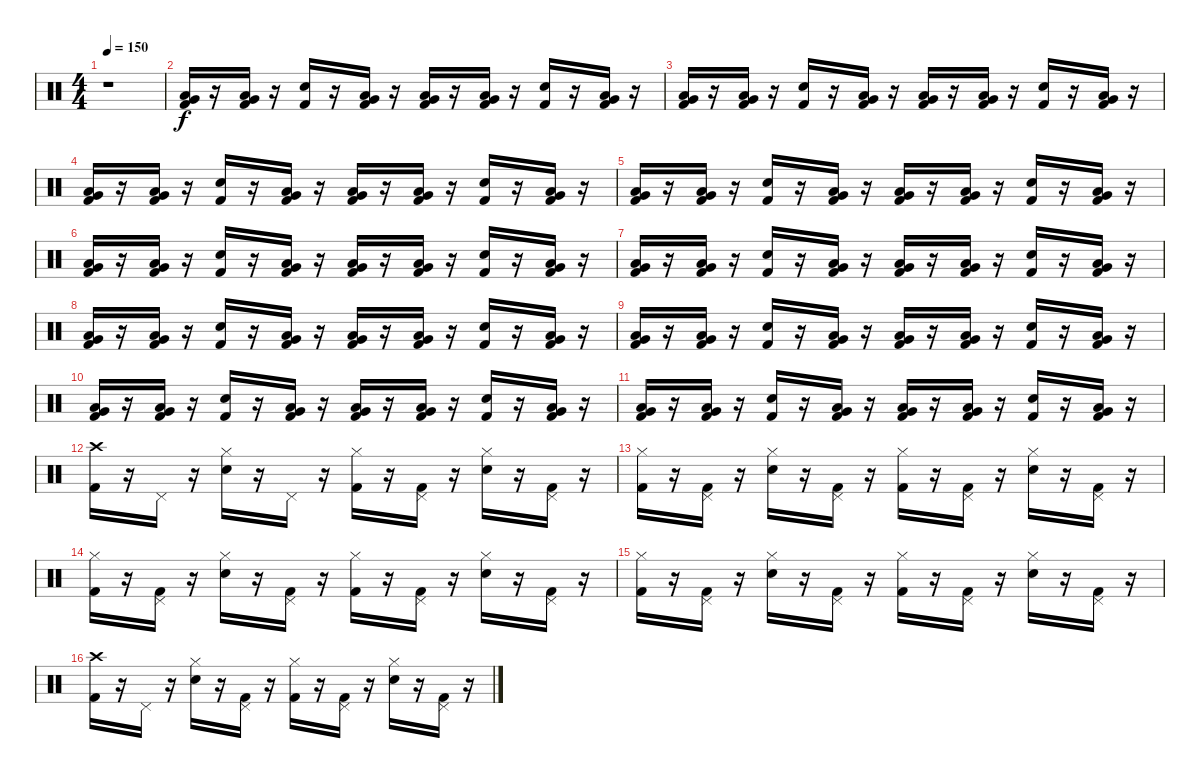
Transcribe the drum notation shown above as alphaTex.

\track "" {instrument percussion}
\staff {score}
\articulation defaults
\ts (4 4)
\tempo 150
\clef neutral
\ks c
r.1{dy f} |
("Kick (hit) 2" "Very Low Tom (hit)" "Low Tom (hit)").16 r.16 ("Kick (hit) 2" "Very Low Tom (hit)" "Low Tom (hit)").16 r.16 ("Kick (hit) 2" "Electric Snare (hit)").16 r.16 ("Kick (hit) 2" "Low Tom (hit)" "Very Low Tom (hit)").16 r.16 ("Kick (hit) 2" "Very Low Tom (hit)" "Low Tom (hit)").16 r.16 ("Kick (hit) 2" "Very Low Tom (hit)" "Low Tom (hit)").16 r.16 ("Kick (hit) 2" "Electric Snare (hit)").16 r.16 ("Kick (hit) 2" "Very Low Tom (hit)" "Low Tom (hit)").16 r.16 |
("Kick (hit) 2" "Very Low Tom (hit)" "Low Tom (hit)").16 r.16 ("Kick (hit) 2" "Low Tom (hit)" "Very Low Tom (hit)").16 r.16 ("Kick (hit) 2" "Electric Snare (hit)").16 r.16 ("Kick (hit) 2" "Very Low Tom (hit)" "Low Tom (hit)").16 r.16 ("Kick (hit) 2" "Low Tom (hit)" "Very Low Tom (hit)").16 r.16 ("Kick (hit) 2" "Low Tom (hit)" "Very Low Tom (hit)").16 r.16 ("Kick (hit) 2" "Electric Snare (hit)").16 r.16 ("Kick (hit) 2" "Low Tom (hit)" "Very Low Tom (hit)").16 r.16 |
("Kick (hit) 2" "Very Low Tom (hit)" "Low Tom (hit)").16 r.16 ("Kick (hit) 2" "Very Low Tom (hit)" "Low Tom (hit)").16 r.16 ("Kick (hit) 2" "Electric Snare (hit)").16 r.16 ("Kick (hit) 2" "Low Tom (hit)" "Very Low Tom (hit)").16 r.16 ("Kick (hit) 2" "Very Low Tom (hit)" "Low Tom (hit)").16 r.16 ("Kick (hit) 2" "Very Low Tom (hit)" "Low Tom (hit)").16 r.16 ("Kick (hit) 2" "Electric Snare (hit)").16 r.16 ("Kick (hit) 2" "Very Low Tom (hit)" "Low Tom (hit)").16 r.16 |
("Kick (hit) 2" "Very Low Tom (hit)" "Low Tom (hit)").16 r.16 ("Kick (hit) 2" "Low Tom (hit)" "Very Low Tom (hit)").16 r.16 ("Kick (hit) 2" "Electric Snare (hit)").16 r.16 ("Kick (hit) 2" "Very Low Tom (hit)" "Low Tom (hit)").16 r.16 ("Kick (hit) 2" "Low Tom (hit)" "Very Low Tom (hit)").16 r.16 ("Kick (hit) 2" "Low Tom (hit)" "Very Low Tom (hit)").16 r.16 ("Kick (hit) 2" "Electric Snare (hit)").16 r.16 ("Kick (hit) 2" "Low Tom (hit)" "Very Low Tom (hit)").16 r.16 |
("Kick (hit) 2" "Very Low Tom (hit)" "Low Tom (hit)").16 r.16 ("Kick (hit) 2" "Very Low Tom (hit)" "Low Tom (hit)").16 r.16 ("Kick (hit) 2" "Electric Snare (hit)").16 r.16 ("Kick (hit) 2" "Low Tom (hit)" "Very Low Tom (hit)").16 r.16 ("Kick (hit) 2" "Very Low Tom (hit)" "Low Tom (hit)").16 r.16 ("Kick (hit) 2" "Very Low Tom (hit)" "Low Tom (hit)").16 r.16 ("Kick (hit) 2" "Electric Snare (hit)").16 r.16 ("Kick (hit) 2" "Very Low Tom (hit)" "Low Tom (hit)").16 r.16 |
("Kick (hit) 2" "Very Low Tom (hit)" "Low Tom (hit)").16 r.16 ("Kick (hit) 2" "Low Tom (hit)" "Very Low Tom (hit)").16 r.16 ("Kick (hit) 2" "Electric Snare (hit)").16 r.16 ("Kick (hit) 2" "Very Low Tom (hit)" "Low Tom (hit)").16 r.16 ("Kick (hit) 2" "Low Tom (hit)" "Very Low Tom (hit)").16 r.16 ("Kick (hit) 2" "Low Tom (hit)" "Very Low Tom (hit)").16 r.16 ("Kick (hit) 2" "Electric Snare (hit)").16 r.16 ("Kick (hit) 2" "Low Tom (hit)" "Very Low Tom (hit)").16 r.16 |
("Low Tom (hit)" "Very Low Tom (hit)" "Kick (hit) 2").16 r.16 ("Very Low Tom (hit)" "Low Tom (hit)" "Kick (hit) 2").16 r.16 ("Electric Snare (hit)" "Kick (hit) 2").16 r.16 ("Low Tom (hit)" "Very Low Tom (hit)" "Kick (hit) 2").16 r.16 ("Very Low Tom (hit)" "Low Tom (hit)" "Kick (hit) 2").16 r.16 ("Very Low Tom (hit)" "Low Tom (hit)" "Kick (hit) 2").16 r.16 ("Electric Snare (hit)" "Kick (hit) 2").16 r.16 ("Very Low Tom (hit)" "Low Tom (hit)" "Kick (hit) 2").16 r.16 |
("Very Low Tom (hit)" "Low Tom (hit)" "Kick (hit) 2").16 r.16 ("Kick (hit) 2" "Low Tom (hit)" "Very Low Tom (hit)").16 r.16 ("Kick (hit) 2" "Electric Snare (hit)").16 r.16 ("Kick (hit) 2" "Very Low Tom (hit)" "Low Tom (hit)").16 r.16 ("Kick (hit) 2" "Low Tom (hit)" "Very Low Tom (hit)").16 r.16 ("Kick (hit) 2" "Low Tom (hit)" "Very Low Tom (hit)").16 r.16 ("Kick (hit) 2" "Electric Snare (hit)").16 r.16 ("Kick (hit) 2" "Low Tom (hit)" "Very Low Tom (hit)").16 r.16 |
("Low Tom (hit)" "Very Low Tom (hit)" "Kick (hit) 2").16 r.16 ("Very Low Tom (hit)" "Low Tom (hit)" "Kick (hit) 2").16 r.16 ("Electric Snare (hit)" "Kick (hit) 2").16 r.16 ("Low Tom (hit)" "Very Low Tom (hit)" "Kick (hit) 2").16 r.16 ("Very Low Tom (hit)" "Low Tom (hit)" "Kick (hit) 2").16 r.16 ("Very Low Tom (hit)" "Low Tom (hit)" "Kick (hit) 2").16 r.16 ("Electric Snare (hit)" "Kick (hit) 2").16 r.16 ("Very Low Tom (hit)" "Low Tom (hit)" "Kick (hit) 2").16 r.16 |
("Very Low Tom (hit)" "Low Tom (hit)" "Kick (hit) 2").16 r.16 ("Kick (hit) 2" "Low Tom (hit)" "Very Low Tom (hit)").16 r.16 ("Kick (hit) 2" "Electric Snare (hit)").16 r.16 ("Kick (hit) 2" "Very Low Tom (hit)" "Low Tom (hit)").16 r.16 ("Kick (hit) 2" "Low Tom (hit)" "Very Low Tom (hit)").16 r.16 ("Kick (hit) 2" "Low Tom (hit)" "Very Low Tom (hit)").16 r.16 ("Kick (hit) 2" "Electric Snare (hit)").16 r.16 ("Kick (hit) 2" "Low Tom (hit)" "Very Low Tom (hit)").16 r.16 |
("Crash high (hit)" "Kick (hit) 2").16 r.16 "Pedal Hi-Hat (hit)".16 r.16 ("Electric Snare (hit)" "Hi-Hat (closed)").16 r.16 "Pedal Hi-Hat (hit)".16 r.16 ("Kick (hit) 2" "Hi-Hat (closed)").16 r.16 ("Kick (hit) 2" "Pedal Hi-Hat (hit)").16 r.16 ("Electric Snare (hit)" "Hi-Hat (closed)").16 r.16 ("Kick (hit) 2" "Pedal Hi-Hat (hit)").16 r.16 |
("Hi-Hat (closed)" "Kick (hit) 2").16 r.16 ("Kick (hit) 2" "Pedal Hi-Hat (hit)").16 r.16 ("Hi-Hat (closed)" "Electric Snare (hit)").16 r.16 ("Kick (hit) 2" "Pedal Hi-Hat (hit)").16 r.16 ("Hi-Hat (closed)" "Kick (hit) 2").16 r.16 ("Pedal Hi-Hat (hit)" "Kick (hit) 2").16 r.16 ("Hi-Hat (closed)" "Electric Snare (hit)").16 r.16 ("Kick (hit) 2" "Pedal Hi-Hat (hit)").16 r.16 |
("Hi-Hat (closed)" "Kick (hit) 2").16 r.16 ("Pedal Hi-Hat (hit)" "Kick (hit) 2").16 r.16 ("Electric Snare (hit)" "Hi-Hat (closed)").16 r.16 ("Kick (hit) 2" "Pedal Hi-Hat (hit)").16 r.16 ("Kick (hit) 2" "Hi-Hat (closed)").16 r.16 ("Kick (hit) 2" "Pedal Hi-Hat (hit)").16 r.16 ("Electric Snare (hit)" "Hi-Hat (closed)").16 r.16 ("Kick (hit) 2" "Pedal Hi-Hat (hit)").16 r.16 |
("Hi-Hat (closed)" "Kick (hit) 2").16 r.16 ("Kick (hit) 2" "Pedal Hi-Hat (hit)").16 r.16 ("Hi-Hat (closed)" "Electric Snare (hit)").16 r.16 ("Pedal Hi-Hat (hit)" "Kick (hit) 2").16 r.16 ("Hi-Hat (closed)" "Kick (hit) 2").16 r.16 ("Pedal Hi-Hat (hit)" "Kick (hit) 2").16 r.16 ("Hi-Hat (closed)" "Electric Snare (hit)").16 r.16 ("Pedal Hi-Hat (hit)" "Kick (hit) 2").16 r.16 |
("Crash high (hit)" "Kick (hit) 2").16 r.16 "Pedal Hi-Hat (hit)".16 r.16 ("Hi-Hat (closed)" "Electric Snare (hit)").16 r.16 ("Pedal Hi-Hat (hit)" "Kick (hit) 2").16 r.16 ("Hi-Hat (closed)" "Kick (hit) 2").16 r.16 ("Pedal Hi-Hat (hit)" "Kick (hit) 2").16 r.16 ("Hi-Hat (closed)" "Electric Snare (hit)").16 r.16 ("Pedal Hi-Hat (hit)" "Kick (hit) 2").16 r.16
